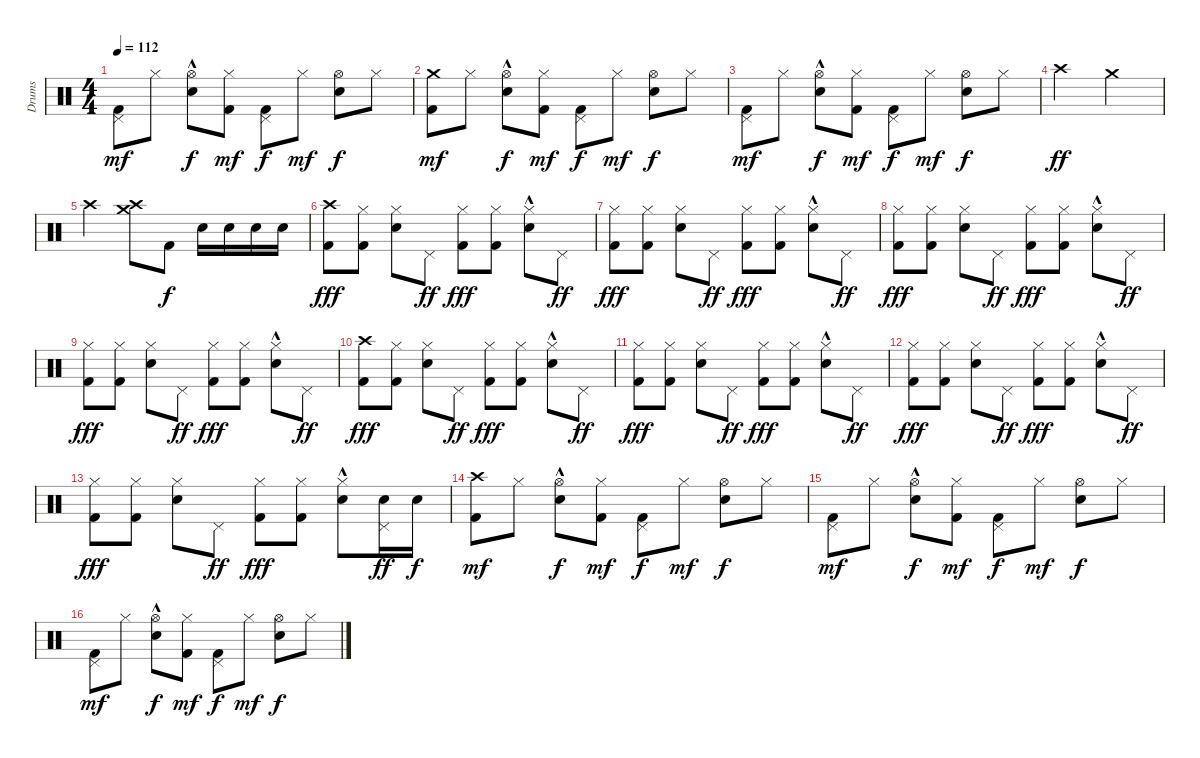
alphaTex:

\track ("Drums" "Drums") {instrument percussion}
\staff {score}
\articulation defaults
\ts (4 4)
\tempo 112
\clef neutral
\ks c
("Pedal Hi-Hat (hit)" "Kick (hit) 2").8{dy mf} "Hi-Hat (closed)".8 ("Hi-Hat (open)"{hac} "Snare (hit) 2").8{dy f} ("Hi-Hat (closed)" "Kick (hit) 2").8{dy mf} ("Pedal Hi-Hat (hit)" "Kick (hit) 2").8{dy f} "Hi-Hat (closed)".8{dy mf} ("Hi-Hat (open)" "Snare (hit) 2").8{dy f} "Hi-Hat (closed)".8 |
("Crash medium (hit)" "Kick (hit) 2").8{dy mf} "Hi-Hat (closed)".8 ("Hi-Hat (open)"{hac} "Snare (hit) 2").8{dy f} ("Hi-Hat (closed)" "Kick (hit) 2").8{dy mf} ("Pedal Hi-Hat (hit)" "Kick (hit) 2").8{dy f} "Hi-Hat (closed)".8{dy mf} ("Hi-Hat (open)" "Snare (hit) 2").8{dy f} "Hi-Hat (closed)".8 |
("Pedal Hi-Hat (hit)" "Kick (hit) 2").8{dy mf} "Hi-Hat (closed)".8 ("Hi-Hat (open)"{hac} "Snare (hit) 2").8{dy f} ("Hi-Hat (closed)" "Kick (hit) 2").8{dy mf} ("Pedal Hi-Hat (hit)" "Kick (hit) 2").8{dy f} "Hi-Hat (closed)".8{dy mf} ("Hi-Hat (open)" "Snare (hit) 2").8{dy f} "Hi-Hat (closed)".8 |
"Crash high (hit)".2{dy ff} "Crash medium (hit)".2 |
"Crash high (hit)".2 ("Crash high (hit)" "Crash medium (hit)").8 "Kick (hit) 2".8{dy f} "Snare (hit) 2".16 "Snare (hit) 2".16 "Snare (hit) 2".16 "Snare (hit) 2".16 |
("Crash high (hit)" "Kick (hit) 2").8{dy fff} ("Hi-Hat (closed)" "Kick (hit) 2").8 ("Hi-Hat (closed)" "Snare (hit) 2").8 "Pedal Hi-Hat (hit)".8{dy ff} ("Hi-Hat (closed)" "Kick (hit) 2").8{dy fff} ("Hi-Hat (closed)" "Kick (hit) 2").8 ("Hi-Hat (closed)"{hac} "Snare (hit) 2").8 "Pedal Hi-Hat (hit)".8{dy ff} |
("Hi-Hat (closed)" "Kick (hit) 2").8{dy fff} ("Hi-Hat (closed)" "Kick (hit) 2").8 ("Hi-Hat (closed)" "Snare (hit) 2").8 "Pedal Hi-Hat (hit)".8{dy ff} ("Hi-Hat (closed)" "Kick (hit) 2").8{dy fff} ("Hi-Hat (closed)" "Kick (hit) 2").8 ("Hi-Hat (closed)"{hac} "Snare (hit) 2").8 "Pedal Hi-Hat (hit)".8{dy ff} |
("Hi-Hat (closed)" "Kick (hit) 2").8{dy fff} ("Hi-Hat (closed)" "Kick (hit) 2").8 ("Hi-Hat (closed)" "Snare (hit) 2").8 "Pedal Hi-Hat (hit)".8{dy ff} ("Hi-Hat (closed)" "Kick (hit) 2").8{dy fff} ("Hi-Hat (closed)" "Kick (hit) 2").8 ("Hi-Hat (closed)"{hac} "Snare (hit) 2").8 "Pedal Hi-Hat (hit)".8{dy ff} |
("Hi-Hat (closed)" "Kick (hit) 2").8{dy fff} ("Hi-Hat (closed)" "Kick (hit) 2").8 ("Hi-Hat (closed)" "Snare (hit) 2").8 "Pedal Hi-Hat (hit)".8{dy ff} ("Hi-Hat (closed)" "Kick (hit) 2").8{dy fff} ("Hi-Hat (closed)" "Kick (hit) 2").8 ("Hi-Hat (closed)"{hac} "Snare (hit) 2").8 "Pedal Hi-Hat (hit)".8{dy ff} |
("Crash high (hit)" "Kick (hit) 2").8{dy fff} ("Hi-Hat (closed)" "Kick (hit) 2").8 ("Hi-Hat (closed)" "Snare (hit) 2").8 "Pedal Hi-Hat (hit)".8{dy ff} ("Hi-Hat (closed)" "Kick (hit) 2").8{dy fff} ("Hi-Hat (closed)" "Kick (hit) 2").8 ("Hi-Hat (closed)"{hac} "Snare (hit) 2").8 "Pedal Hi-Hat (hit)".8{dy ff} |
("Hi-Hat (closed)" "Kick (hit) 2").8{dy fff} ("Hi-Hat (closed)" "Kick (hit) 2").8 ("Hi-Hat (closed)" "Snare (hit) 2").8 "Pedal Hi-Hat (hit)".8{dy ff} ("Hi-Hat (closed)" "Kick (hit) 2").8{dy fff} ("Hi-Hat (closed)" "Kick (hit) 2").8 ("Hi-Hat (closed)"{hac} "Snare (hit) 2").8 "Pedal Hi-Hat (hit)".8{dy ff} |
("Hi-Hat (closed)" "Kick (hit) 2").8{dy fff} ("Hi-Hat (closed)" "Kick (hit) 2").8 ("Hi-Hat (closed)" "Snare (hit) 2").8 "Pedal Hi-Hat (hit)".8{dy ff} ("Hi-Hat (closed)" "Kick (hit) 2").8{dy fff} ("Hi-Hat (closed)" "Kick (hit) 2").8 ("Hi-Hat (closed)"{hac} "Snare (hit) 2").8 "Pedal Hi-Hat (hit)".8{dy ff} |
("Hi-Hat (closed)" "Kick (hit) 2").8{dy fff} ("Hi-Hat (closed)" "Kick (hit) 2").8 ("Hi-Hat (closed)" "Snare (hit) 2").8 "Pedal Hi-Hat (hit)".8{dy ff} ("Hi-Hat (closed)" "Kick (hit) 2").8{dy fff} ("Hi-Hat (closed)" "Kick (hit) 2").8 ("Hi-Hat (closed)"{hac} "Snare (hit) 2").8 ("Pedal Hi-Hat (hit)" "Snare (hit) 2").16{dy ff} "Snare (hit) 2".16{dy f} |
("Crash high (hit)" "Kick (hit) 2").8{dy mf} "Hi-Hat (closed)".8 ("Hi-Hat (open)"{hac} "Snare (hit) 2").8{dy f} ("Hi-Hat (closed)" "Kick (hit) 2").8{dy mf} ("Pedal Hi-Hat (hit)" "Kick (hit) 2").8{dy f} "Hi-Hat (closed)".8{dy mf} ("Hi-Hat (open)" "Snare (hit) 2").8{dy f} "Hi-Hat (closed)".8 |
("Pedal Hi-Hat (hit)" "Kick (hit) 2").8{dy mf} "Hi-Hat (closed)".8 ("Hi-Hat (open)"{hac} "Snare (hit) 2").8{dy f} ("Hi-Hat (closed)" "Kick (hit) 2").8{dy mf} ("Pedal Hi-Hat (hit)" "Kick (hit) 2").8{dy f} "Hi-Hat (closed)".8{dy mf} ("Hi-Hat (open)" "Snare (hit) 2").8{dy f} "Hi-Hat (closed)".8 |
("Pedal Hi-Hat (hit)" "Kick (hit) 2").8{dy mf} "Hi-Hat (closed)".8 ("Hi-Hat (open)"{hac} "Snare (hit) 2").8{dy f} ("Hi-Hat (closed)" "Kick (hit) 2").8{dy mf} ("Pedal Hi-Hat (hit)" "Kick (hit) 2").8{dy f} "Hi-Hat (closed)".8{dy mf} ("Hi-Hat (open)" "Snare (hit) 2").8{dy f} "Hi-Hat (closed)".8
